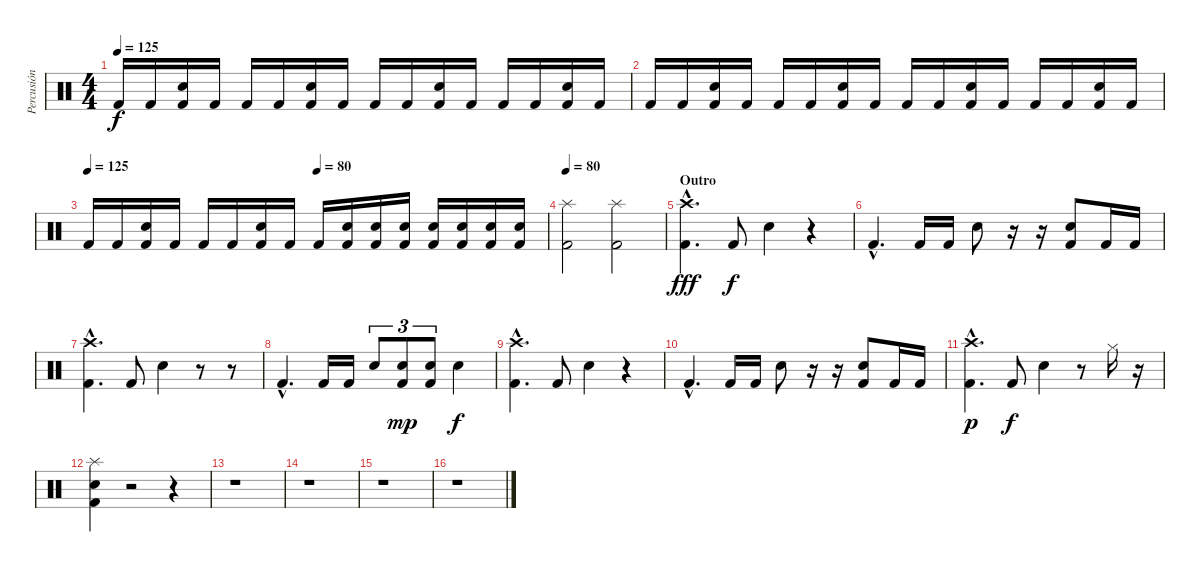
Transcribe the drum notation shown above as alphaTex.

\track ("Percusión" "Percusión") {instrument percussion}
\staff {score}
\articulation defaults
\ts (4 4)
\tempo 125
\clef neutral
\ks c "Kick (hit) 2".16{dy f} "Kick (hit) 2".16
("Electric Snare (hit)" "Kick (hit) 2").16 "Kick (hit) 2".16 "Kick (hit) 2".16 "Kick (hit) 2".16 ("Electric Snare (hit)" "Kick (hit) 2").16 "Kick (hit) 2".16 "Kick (hit) 2".16 "Kick (hit) 2".16 ("Electric Snare (hit)" "Kick (hit) 2").16 "Kick (hit) 2".16 "Kick (hit) 2".16 "Kick (hit) 2".16 ("Electric Snare (hit)" "Kick (hit) 2").16 "Kick (hit) 2".16 |
"Kick (hit) 2".16 "Kick (hit) 2".16 ("Electric Snare (hit)" "Kick (hit) 2").16 "Kick (hit) 2".16 "Kick (hit) 2".16 "Kick (hit) 2".16 ("Electric Snare (hit)" "Kick (hit) 2").16 "Kick (hit) 2".16 "Kick (hit) 2".16 "Kick (hit) 2".16 ("Electric Snare (hit)" "Kick (hit) 2").16 "Kick (hit) 2".16 "Kick (hit) 2".16 "Kick (hit) 2".16 ("Electric Snare (hit)" "Kick (hit) 2").16 "Kick (hit) 2".16 |
\tempo 125
\tempo (80 0.5)
"Kick (hit) 2".16 "Kick (hit) 2".16 ("Electric Snare (hit)" "Kick (hit) 2").16 "Kick (hit) 2".16 "Kick (hit) 2".16 "Kick (hit) 2".16 ("Electric Snare (hit)" "Kick (hit) 2").16 "Kick (hit) 2".16 "Kick (hit) 2".16 ("Electric Snare (hit)" "Kick (hit) 2").16 ("Electric Snare (hit)" "Kick (hit) 2").16 ("Electric Snare (hit)" "Kick (hit) 2").16 ("Electric Snare (hit)" "Kick (hit) 2").16 ("Electric Snare (hit)" "Kick (hit) 2").16 ("Electric Snare (hit)" "Kick (hit) 2").16 ("Electric Snare (hit)" "Kick (hit) 2").16 |
\tempo 80
("Splash (hit)" "Kick (hit) 2").2 ("Splash (hit)" "Kick (hit) 2").2 |
\section ("" "Outro")
("Kick (hit) 2"{hac} "Crash high (hit)"{hac}).4{d dy fff} "Kick (hit) 2".8{dy f} "Electric Snare (hit)".4 r.4 |
"Kick (hit) 2"{hac}.4{d} "Kick (hit) 2".16 "Kick (hit) 2".16 "Electric Snare (hit)".8 r.16 r.16 ("Kick (hit) 2" "Electric Snare (hit)").8 "Kick (hit) 2".16 "Kick (hit) 2".16 |
("Kick (hit) 2"{hac} "Crash high (hit)"{hac}).4{d} "Kick (hit) 2".8 "Electric Snare (hit)".4 r.8 r.8 |
"Kick (hit) 2"{hac}.4{d} "Kick (hit) 2".16 "Kick (hit) 2".16 "Electric Snare (hit)".8{tu (3 2)} ("Kick (hit) 2" "Electric Snare (hit)").8{tu (3 2) dy mp} ("Kick (hit) 2" "Electric Snare (hit)").8{tu (3 2)} "Electric Snare (hit)".4{dy f} |
("Kick (hit) 2"{hac} "Crash high (hit)"{hac}).4{d} "Kick (hit) 2".8 "Electric Snare (hit)".4 r.4 |
"Kick (hit) 2"{hac}.4{d} "Kick (hit) 2".16 "Kick (hit) 2".16 "Electric Snare (hit)".8 r.16 r.16 ("Kick (hit) 2" "Electric Snare (hit)").8 "Kick (hit) 2".16 "Kick (hit) 2".16 |
("Kick (hit) 2"{hac} "Crash high (hit)"{hac}).4{d dy p} "Kick (hit) 2".8{dy f} "Electric Snare (hit)".4 r.8 "Hi-Hat (closed)".16 r.16 |
("Electric Snare (hit)" "Splash (hit)" "Kick (hit) 2").4 r.2 r.4 |
r.1 |
r.1 |
r.1 |
r.1
